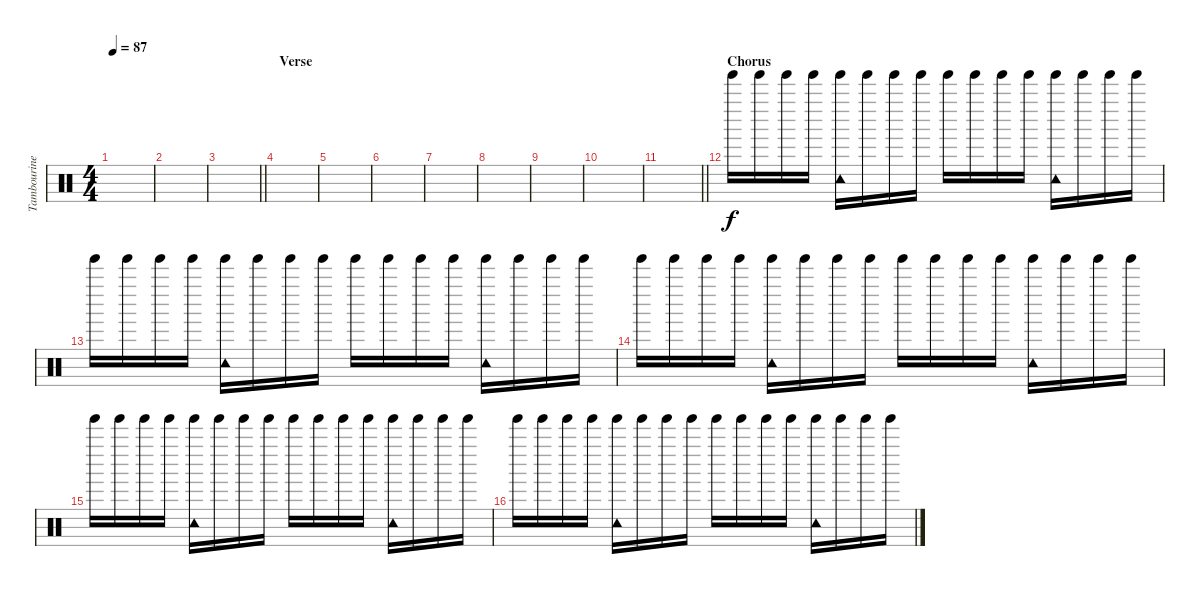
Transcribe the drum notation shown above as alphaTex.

\track ("Tambourine" "Tambourine") {instrument percussion}
\staff {score}
\articulation defaults
\ts (4 4)
\tempo 87
\clef neutral
\ks c
|
|
\barLineRight lightlight
|
\section ("" "Verse")
|
|
|
|
|
|
|
\barLineRight lightlight
|
\section ("" "Chorus")
"Tinkle Bell (hit)".16 "Tinkle Bell (hit)".16 "Tinkle Bell (hit)".16 "Tinkle Bell (hit)".16 ("Tinkle Bell (hit)" "Tambourine (hit)").16 "Tinkle Bell (hit)".16 "Tinkle Bell (hit)".16 "Tinkle Bell (hit)".16 "Tinkle Bell (hit)".16 "Tinkle Bell (hit)".16 "Tinkle Bell (hit)".16 "Tinkle Bell (hit)".16 ("Tinkle Bell (hit)" "Tambourine (hit)").16 "Tinkle Bell (hit)".16 "Tinkle Bell (hit)".16 "Tinkle Bell (hit)".16 |
"Tinkle Bell (hit)".16 "Tinkle Bell (hit)".16 "Tinkle Bell (hit)".16 "Tinkle Bell (hit)".16 ("Tinkle Bell (hit)" "Tambourine (hit)").16 "Tinkle Bell (hit)".16 "Tinkle Bell (hit)".16 "Tinkle Bell (hit)".16 "Tinkle Bell (hit)".16 "Tinkle Bell (hit)".16 "Tinkle Bell (hit)".16 "Tinkle Bell (hit)".16 ("Tinkle Bell (hit)" "Tambourine (hit)").16 "Tinkle Bell (hit)".16 "Tinkle Bell (hit)".16 "Tinkle Bell (hit)".16 |
"Tinkle Bell (hit)".16 "Tinkle Bell (hit)".16 "Tinkle Bell (hit)".16 "Tinkle Bell (hit)".16 ("Tinkle Bell (hit)" "Tambourine (hit)").16 "Tinkle Bell (hit)".16 "Tinkle Bell (hit)".16 "Tinkle Bell (hit)".16 "Tinkle Bell (hit)".16 "Tinkle Bell (hit)".16 "Tinkle Bell (hit)".16 "Tinkle Bell (hit)".16 ("Tinkle Bell (hit)" "Tambourine (hit)").16 "Tinkle Bell (hit)".16 "Tinkle Bell (hit)".16 "Tinkle Bell (hit)".16 |
"Tinkle Bell (hit)".16 "Tinkle Bell (hit)".16 "Tinkle Bell (hit)".16 "Tinkle Bell (hit)".16 ("Tinkle Bell (hit)" "Tambourine (hit)").16 "Tinkle Bell (hit)".16 "Tinkle Bell (hit)".16 "Tinkle Bell (hit)".16 "Tinkle Bell (hit)".16 "Tinkle Bell (hit)".16 "Tinkle Bell (hit)".16 "Tinkle Bell (hit)".16 ("Tinkle Bell (hit)" "Tambourine (hit)").16 "Tinkle Bell (hit)".16 "Tinkle Bell (hit)".16 "Tinkle Bell (hit)".16 |
"Tinkle Bell (hit)".16 "Tinkle Bell (hit)".16 "Tinkle Bell (hit)".16 "Tinkle Bell (hit)".16 ("Tinkle Bell (hit)" "Tambourine (hit)").16 "Tinkle Bell (hit)".16 "Tinkle Bell (hit)".16 "Tinkle Bell (hit)".16 "Tinkle Bell (hit)".16 "Tinkle Bell (hit)".16 "Tinkle Bell (hit)".16 "Tinkle Bell (hit)".16 ("Tinkle Bell (hit)" "Tambourine (hit)").16 "Tinkle Bell (hit)".16 "Tinkle Bell (hit)".16 "Tinkle Bell (hit)".16
